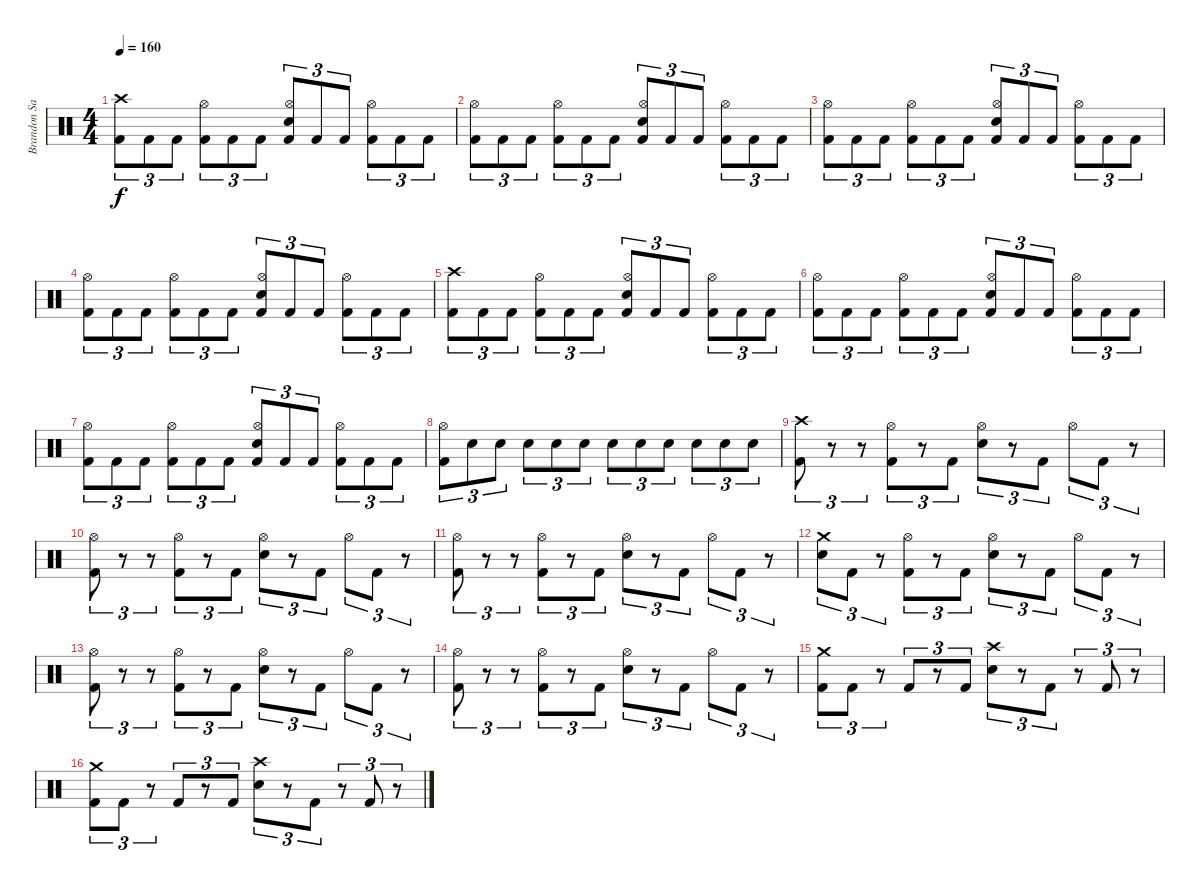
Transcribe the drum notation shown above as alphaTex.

\track ("Brandon Saller" "Brandon Sa") {instrument percussion}
\staff {score}
\articulation defaults
\ts (4 4)
\tempo 160
\clef neutral
\ks c
("Crash high (hit)" "Kick (hit) 2").8{tu (3 2) dy f} "Kick (hit) 2".8{tu (3 2)} "Kick (hit) 2".8{tu (3 2)} ("Hi-Hat (open)" "Kick (hit) 2").8{tu (3 2)} "Kick (hit) 2".8{tu (3 2)} "Kick (hit) 2".8{tu (3 2)} ("Hi-Hat (open)" "Electric Snare (hit)" "Kick (hit) 2").8{tu (3 2)} "Kick (hit) 2".8{tu (3 2)} "Kick (hit) 2".8{tu (3 2)} ("Hi-Hat (open)" "Kick (hit) 2").8{tu (3 2)} "Kick (hit) 2".8{tu (3 2)} "Kick (hit) 2".8{tu (3 2)} |
("Hi-Hat (open)" "Kick (hit) 2").8{tu (3 2)} "Kick (hit) 2".8{tu (3 2)} "Kick (hit) 2".8{tu (3 2)} ("Hi-Hat (open)" "Kick (hit) 2").8{tu (3 2)} "Kick (hit) 2".8{tu (3 2)} "Kick (hit) 2".8{tu (3 2)} ("Hi-Hat (open)" "Electric Snare (hit)" "Kick (hit) 2").8{tu (3 2)} "Kick (hit) 2".8{tu (3 2)} "Kick (hit) 2".8{tu (3 2)} ("Hi-Hat (open)" "Kick (hit) 2").8{tu (3 2)} "Kick (hit) 2".8{tu (3 2)} "Kick (hit) 2".8{tu (3 2)} |
("Hi-Hat (open)" "Kick (hit) 2").8{tu (3 2)} "Kick (hit) 2".8{tu (3 2)} "Kick (hit) 2".8{tu (3 2)} ("Hi-Hat (open)" "Kick (hit) 2").8{tu (3 2)} "Kick (hit) 2".8{tu (3 2)} "Kick (hit) 2".8{tu (3 2)} ("Hi-Hat (open)" "Electric Snare (hit)" "Kick (hit) 2").8{tu (3 2)} "Kick (hit) 2".8{tu (3 2)} "Kick (hit) 2".8{tu (3 2)} ("Hi-Hat (open)" "Kick (hit) 2").8{tu (3 2)} "Kick (hit) 2".8{tu (3 2)} "Kick (hit) 2".8{tu (3 2)} |
("Hi-Hat (open)" "Kick (hit) 2").8{tu (3 2)} "Kick (hit) 2".8{tu (3 2)} "Kick (hit) 2".8{tu (3 2)} ("Hi-Hat (open)" "Kick (hit) 2").8{tu (3 2)} "Kick (hit) 2".8{tu (3 2)} "Kick (hit) 2".8{tu (3 2)} ("Hi-Hat (open)" "Electric Snare (hit)" "Kick (hit) 2").8{tu (3 2)} "Kick (hit) 2".8{tu (3 2)} "Kick (hit) 2".8{tu (3 2)} ("Hi-Hat (open)" "Kick (hit) 2").8{tu (3 2)} "Kick (hit) 2".8{tu (3 2)} "Kick (hit) 2".8{tu (3 2)} |
("Crash high (hit)" "Kick (hit) 2").8{tu (3 2)} "Kick (hit) 2".8{tu (3 2)} "Kick (hit) 2".8{tu (3 2)} ("Hi-Hat (open)" "Kick (hit) 2").8{tu (3 2)} "Kick (hit) 2".8{tu (3 2)} "Kick (hit) 2".8{tu (3 2)} ("Hi-Hat (open)" "Electric Snare (hit)" "Kick (hit) 2").8{tu (3 2)} "Kick (hit) 2".8{tu (3 2)} "Kick (hit) 2".8{tu (3 2)} ("Hi-Hat (open)" "Kick (hit) 2").8{tu (3 2)} "Kick (hit) 2".8{tu (3 2)} "Kick (hit) 2".8{tu (3 2)} |
("Hi-Hat (open)" "Kick (hit) 2").8{tu (3 2)} "Kick (hit) 2".8{tu (3 2)} "Kick (hit) 2".8{tu (3 2)} ("Hi-Hat (open)" "Kick (hit) 2").8{tu (3 2)} "Kick (hit) 2".8{tu (3 2)} "Kick (hit) 2".8{tu (3 2)} ("Hi-Hat (open)" "Electric Snare (hit)" "Kick (hit) 2").8{tu (3 2)} "Kick (hit) 2".8{tu (3 2)} "Kick (hit) 2".8{tu (3 2)} ("Hi-Hat (open)" "Kick (hit) 2").8{tu (3 2)} "Kick (hit) 2".8{tu (3 2)} "Kick (hit) 2".8{tu (3 2)} |
("Hi-Hat (open)" "Kick (hit) 2").8{tu (3 2)} "Kick (hit) 2".8{tu (3 2)} "Kick (hit) 2".8{tu (3 2)} ("Hi-Hat (open)" "Kick (hit) 2").8{tu (3 2)} "Kick (hit) 2".8{tu (3 2)} "Kick (hit) 2".8{tu (3 2)} ("Hi-Hat (open)" "Electric Snare (hit)" "Kick (hit) 2").8{tu (3 2)} "Kick (hit) 2".8{tu (3 2)} "Kick (hit) 2".8{tu (3 2)} ("Hi-Hat (open)" "Kick (hit) 2").8{tu (3 2)} "Kick (hit) 2".8{tu (3 2)} "Kick (hit) 2".8{tu (3 2)} |
("Hi-Hat (open)" "Kick (hit) 2").8{tu (3 2)} "Electric Snare (hit)".8{tu (3 2)} "Electric Snare (hit)".8{tu (3 2)} "Electric Snare (hit)".8{tu (3 2)} "Electric Snare (hit)".8{tu (3 2)} "Electric Snare (hit)".8{tu (3 2)} "Electric Snare (hit)".8{tu (3 2)} "Electric Snare (hit)".8{tu (3 2)} "Electric Snare (hit)".8{tu (3 2)} "Electric Snare (hit)".8{tu (3 2)} "Electric Snare (hit)".8{tu (3 2)} "Electric Snare (hit)".8{tu (3 2)} |
("Crash high (hit)" "Kick (hit) 2").8{tu (3 2)} r.8{tu (3 2)} r.8{tu (3 2)} ("Hi-Hat (open)" "Kick (hit) 2").8{tu (3 2)} r.8{tu (3 2)} "Kick (hit) 2".8{tu (3 2)} ("Hi-Hat (open)" "Electric Snare (hit)").8{tu (3 2)} r.8{tu (3 2)} "Kick (hit) 2".8{tu (3 2)} "Hi-Hat (open)".8{tu (3 2)} "Kick (hit) 2".8{tu (3 2)} r.8{tu (3 2)} |
("Hi-Hat (open)" "Kick (hit) 2").8{tu (3 2)} r.8{tu (3 2)} r.8{tu (3 2)} ("Hi-Hat (open)" "Kick (hit) 2").8{tu (3 2)} r.8{tu (3 2)} "Kick (hit) 2".8{tu (3 2)} ("Hi-Hat (open)" "Electric Snare (hit)").8{tu (3 2)} r.8{tu (3 2)} "Kick (hit) 2".8{tu (3 2)} "Hi-Hat (open)".8{tu (3 2)} "Kick (hit) 2".8{tu (3 2)} r.8{tu (3 2)} |
("Hi-Hat (open)" "Kick (hit) 2").8{tu (3 2)} r.8{tu (3 2)} r.8{tu (3 2)} ("Hi-Hat (open)" "Kick (hit) 2").8{tu (3 2)} r.8{tu (3 2)} "Kick (hit) 2".8{tu (3 2)} ("Hi-Hat (open)" "Electric Snare (hit)").8{tu (3 2)} r.8{tu (3 2)} "Kick (hit) 2".8{tu (3 2)} "Hi-Hat (open)".8{tu (3 2)} "Kick (hit) 2".8{tu (3 2)} r.8{tu (3 2)} |
("Crash medium (hit)" "Electric Snare (hit)").8{tu (3 2)} "Kick (hit) 2".8{tu (3 2)} r.8{tu (3 2)} ("Hi-Hat (open)" "Kick (hit) 2").8{tu (3 2)} r.8{tu (3 2)} "Kick (hit) 2".8{tu (3 2)} ("Hi-Hat (open)" "Electric Snare (hit)").8{tu (3 2)} r.8{tu (3 2)} "Kick (hit) 2".8{tu (3 2)} "Hi-Hat (open)".8{tu (3 2)} "Kick (hit) 2".8{tu (3 2)} r.8{tu (3 2)} |
("Hi-Hat (open)" "Kick (hit) 2").8{tu (3 2)} r.8{tu (3 2)} r.8{tu (3 2)} ("Hi-Hat (open)" "Kick (hit) 2").8{tu (3 2)} r.8{tu (3 2)} "Kick (hit) 2".8{tu (3 2)} ("Hi-Hat (open)" "Electric Snare (hit)").8{tu (3 2)} r.8{tu (3 2)} "Kick (hit) 2".8{tu (3 2)} "Hi-Hat (open)".8{tu (3 2)} "Kick (hit) 2".8{tu (3 2)} r.8{tu (3 2)} |
("Hi-Hat (open)" "Kick (hit) 2").8{tu (3 2)} r.8{tu (3 2)} r.8{tu (3 2)} ("Hi-Hat (open)" "Kick (hit) 2").8{tu (3 2)} r.8{tu (3 2)} "Kick (hit) 2".8{tu (3 2)} ("Hi-Hat (open)" "Electric Snare (hit)").8{tu (3 2)} r.8{tu (3 2)} "Kick (hit) 2".8{tu (3 2)} "Hi-Hat (open)".8{tu (3 2)} "Kick (hit) 2".8{tu (3 2)} r.8{tu (3 2)} |
("Crash medium (hit)" "Kick (hit) 2").8{tu (3 2)} "Kick (hit) 2".8{tu (3 2)} r.8{tu (3 2)} "Kick (hit) 2".8{tu (3 2)} r.8{tu (3 2)} "Kick (hit) 2".8{tu (3 2)} ("Crash high (hit)" "Electric Snare (hit)").8{tu (3 2)} r.8{tu (3 2)} "Kick (hit) 2".8{tu (3 2)} r.8{tu (3 2)} "Kick (hit) 2".8{tu (3 2)} r.8{tu (3 2)} |
("Crash medium (hit)" "Kick (hit) 2").8{tu (3 2)} "Kick (hit) 2".8{tu (3 2)} r.8{tu (3 2)} "Kick (hit) 2".8{tu (3 2)} r.8{tu (3 2)} "Kick (hit) 2".8{tu (3 2)} ("Crash high (hit)" "Electric Snare (hit)").8{tu (3 2)} r.8{tu (3 2)} "Kick (hit) 2".8{tu (3 2)} r.8{tu (3 2)} "Kick (hit) 2".8{tu (3 2)} r.8{tu (3 2)}
